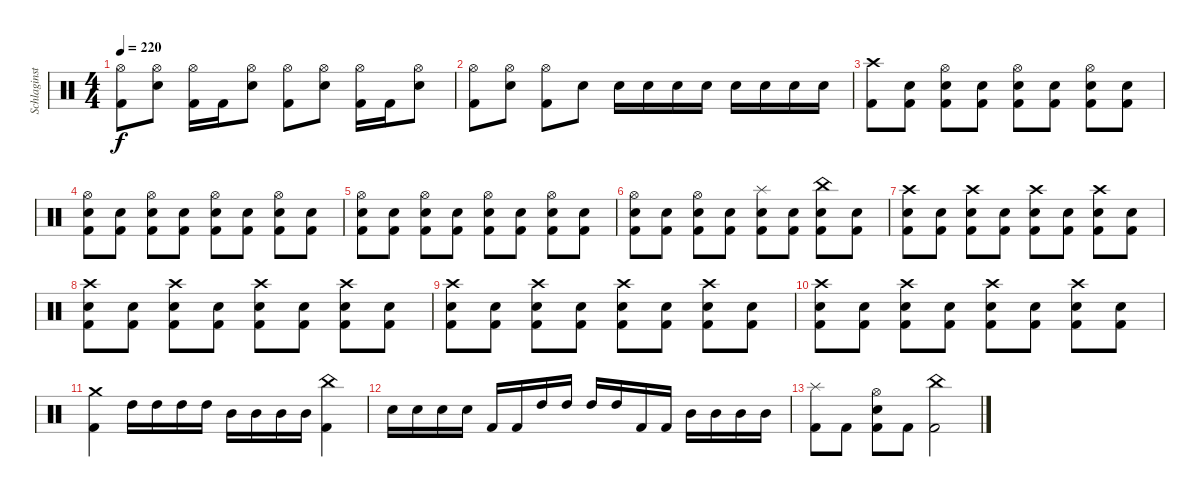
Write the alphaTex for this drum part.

\track ("Schlaginstrumente - Auswahl" "Schlaginst") {instrument percussion}
\staff {score}
\articulation defaults
\ts (4 4)
\tempo 220
\clef neutral
\ks c
("Hi-Hat (open)" "Kick (hit) 2").8{dy f} ("Hi-Hat (open)" "Snare (hit) 2").8 ("Hi-Hat (open)" "Kick (hit) 2").16 "Kick (hit) 2".16 ("Hi-Hat (open)" "Snare (hit) 2").8 ("Hi-Hat (open)" "Kick (hit) 2").8 ("Hi-Hat (open)" "Snare (hit) 2").8 ("Hi-Hat (open)" "Kick (hit) 2").16 "Kick (hit) 2".16 ("Hi-Hat (open)" "Snare (hit) 2").8 |
("Hi-Hat (open)" "Kick (hit) 2").8 ("Hi-Hat (open)" "Snare (hit) 2").8 ("Hi-Hat (open)" "Kick (hit) 2").8 "Snare (hit) 2".8 "Snare (hit) 2".16 "Snare (hit) 2".16 "Snare (hit) 2".16 "Snare (hit) 2".16 "Snare (hit) 2".16 "Snare (hit) 2".16 "Snare (hit) 2".16 "Snare (hit) 2".16 |
("Crash high (hit)" "Kick (hit) 2").8 ("Snare (hit) 2" "Kick (hit) 2").8 ("Hi-Hat (open)" "Snare (hit) 2" "Kick (hit) 2").8 ("Snare (hit) 2" "Kick (hit) 2").8 ("Hi-Hat (open)" "Snare (hit) 2" "Kick (hit) 2").8 ("Snare (hit) 2" "Kick (hit) 2").8 ("Hi-Hat (open)" "Snare (hit) 2" "Kick (hit) 2").8 ("Snare (hit) 2" "Kick (hit) 2").8 |
("Hi-Hat (open)" "Snare (hit) 2" "Kick (hit) 2").8 ("Snare (hit) 2" "Kick (hit) 2").8 ("Hi-Hat (open)" "Snare (hit) 2" "Kick (hit) 2").8 ("Snare (hit) 2" "Kick (hit) 2").8 ("Hi-Hat (open)" "Snare (hit) 2" "Kick (hit) 2").8 ("Snare (hit) 2" "Kick (hit) 2").8 ("Hi-Hat (open)" "Snare (hit) 2" "Kick (hit) 2").8 ("Snare (hit) 2" "Kick (hit) 2").8 |
("Hi-Hat (open)" "Snare (hit) 2" "Kick (hit) 2").8 ("Snare (hit) 2" "Kick (hit) 2").8 ("Hi-Hat (open)" "Snare (hit) 2" "Kick (hit) 2").8 ("Snare (hit) 2" "Kick (hit) 2").8 ("Hi-Hat (open)" "Snare (hit) 2" "Kick (hit) 2").8 ("Snare (hit) 2" "Kick (hit) 2").8 ("Hi-Hat (open)" "Snare (hit) 2" "Kick (hit) 2").8 ("Snare (hit) 2" "Kick (hit) 2").8 |
("Hi-Hat (open)" "Snare (hit) 2" "Kick (hit) 2").8 ("Snare (hit) 2" "Kick (hit) 2").8 ("Hi-Hat (open)" "Snare (hit) 2" "Kick (hit) 2").8 ("Snare (hit) 2" "Kick (hit) 2").8 ("Splash (hit)" "Snare (hit) 2" "Kick (hit) 2").8 ("Snare (hit) 2" "Kick (hit) 2").8 ("China (hit)" "Snare (hit) 2" "Kick (hit) 2").8 ("Snare (hit) 2" "Kick (hit) 2").8 |
("Crash high (hit)" "Snare (hit) 2" "Kick (hit) 2").8 ("Snare (hit) 2" "Kick (hit) 2").8 ("Crash high (hit)" "Snare (hit) 2" "Kick (hit) 2").8 ("Snare (hit) 2" "Kick (hit) 2").8 ("Crash high (hit)" "Snare (hit) 2" "Kick (hit) 2").8 ("Snare (hit) 2" "Kick (hit) 2").8 ("Crash high (hit)" "Snare (hit) 2" "Kick (hit) 2").8 ("Snare (hit) 2" "Kick (hit) 2").8 |
("Crash high (hit)" "Snare (hit) 2" "Kick (hit) 2").8 ("Snare (hit) 2" "Kick (hit) 2").8 ("Crash high (hit)" "Snare (hit) 2" "Kick (hit) 2").8 ("Snare (hit) 2" "Kick (hit) 2").8 ("Crash high (hit)" "Snare (hit) 2" "Kick (hit) 2").8 ("Snare (hit) 2" "Kick (hit) 2").8 ("Crash high (hit)" "Snare (hit) 2" "Kick (hit) 2").8 ("Snare (hit) 2" "Kick (hit) 2").8 |
("Crash high (hit)" "Snare (hit) 2" "Kick (hit) 2").8 ("Snare (hit) 2" "Kick (hit) 2").8 ("Crash high (hit)" "Snare (hit) 2" "Kick (hit) 2").8 ("Snare (hit) 2" "Kick (hit) 2").8 ("Crash high (hit)" "Snare (hit) 2" "Kick (hit) 2").8 ("Snare (hit) 2" "Kick (hit) 2").8 ("Crash high (hit)" "Snare (hit) 2" "Kick (hit) 2").8 ("Snare (hit) 2" "Kick (hit) 2").8 |
("Crash high (hit)" "Snare (hit) 2" "Kick (hit) 2").8 ("Snare (hit) 2" "Kick (hit) 2").8 ("Crash high (hit)" "Snare (hit) 2" "Kick (hit) 2").8 ("Snare (hit) 2" "Kick (hit) 2").8 ("Crash high (hit)" "Snare (hit) 2" "Kick (hit) 2").8 ("Snare (hit) 2" "Kick (hit) 2").8 ("Crash high (hit)" "Snare (hit) 2" "Kick (hit) 2").8 ("Snare (hit) 2" "Kick (hit) 2").8 |
("Crash medium (hit)" "Kick (hit) 2").4 "High Tom (hit)".16 "High Tom (hit)".16 "High Tom (hit)".16 "High Tom (hit)".16 "Mid Tom (hit)".16 "Mid Tom (hit)".16 "Mid Tom (hit)".16 "Mid Tom (hit)".16 ("China (hit)" "Kick (hit) 2").4 |
"Snare (hit) 2".16 "Snare (hit) 2".16 "Snare (hit) 2".16 "Snare (hit) 2".16 "Kick (hit) 2".16 "Kick (hit) 2".16 "High Tom (hit)".16 "High Tom (hit)".16 "High Tom (hit)".16 "High Tom (hit)".16 "Kick (hit) 2".16 "Kick (hit) 2".16 "Mid Tom (hit)".16 "Mid Tom (hit)".16 "Mid Tom (hit)".16 "Mid Tom (hit)".16 |
("Splash (hit)" "Kick (hit) 2").8 "Kick (hit) 2".8 ("Hi-Hat (open)" "Snare (hit) 2" "Kick (hit) 2").8 "Kick (hit) 2".8 ("China (hit)" "Kick (hit) 2").2
